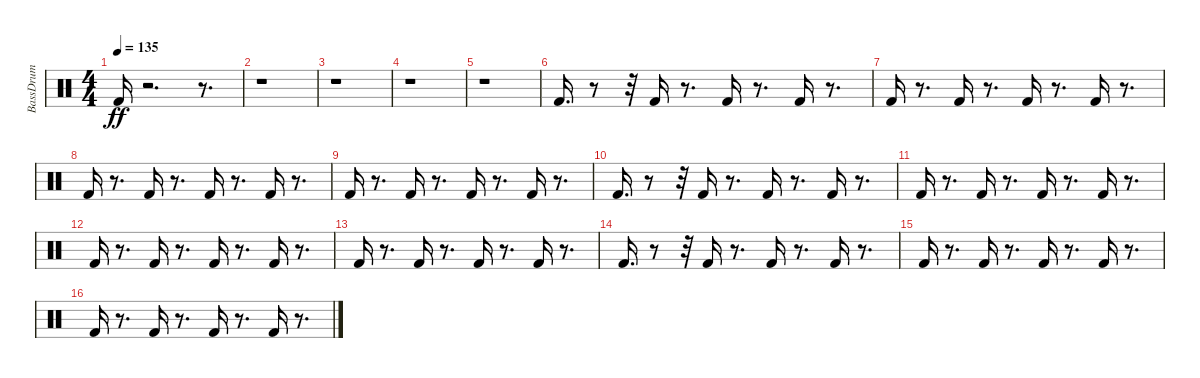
\track ("BassDrum" "BassDrum") {instrument percussion}
\staff {score}
\articulation defaults
\ts (4 4)
\tempo 135
\clef neutral
\ks c "Kick (hit) 2".16{dy ff}
r.2{d} r.8{d} |
r.1 |
r.1 |
r.1 |
r.1 |
"Kick (hit) 2".16{d} r.8 r.32 "Kick (hit) 2".16 r.8{d} "Kick (hit) 2".16 r.8{d} "Kick (hit) 2".16 r.8{d} |
"Kick (hit) 2".16 r.8{d} "Kick (hit) 2".16 r.8{d} "Kick (hit) 2".16 r.8{d} "Kick (hit) 2".16 r.8{d} |
"Kick (hit) 2".16 r.8{d} "Kick (hit) 2".16 r.8{d} "Kick (hit) 2".16 r.8{d} "Kick (hit) 2".16 r.8{d} |
"Kick (hit) 2".16 r.8{d} "Kick (hit) 2".16 r.8{d} "Kick (hit) 2".16 r.8{d} "Kick (hit) 2".16 r.8{d} |
"Kick (hit) 2".16{d} r.8 r.32 "Kick (hit) 2".16 r.8{d} "Kick (hit) 2".16 r.8{d} "Kick (hit) 2".16 r.8{d} |
"Kick (hit) 2".16 r.8{d} "Kick (hit) 2".16 r.8{d} "Kick (hit) 2".16 r.8{d} "Kick (hit) 2".16 r.8{d} |
"Kick (hit) 2".16 r.8{d} "Kick (hit) 2".16 r.8{d} "Kick (hit) 2".16 r.8{d} "Kick (hit) 2".16 r.8{d} |
"Kick (hit) 2".16 r.8{d} "Kick (hit) 2".16 r.8{d} "Kick (hit) 2".16 r.8{d} "Kick (hit) 2".16 r.8{d} |
"Kick (hit) 2".16{d} r.8 r.32 "Kick (hit) 2".16 r.8{d} "Kick (hit) 2".16 r.8{d} "Kick (hit) 2".16 r.8{d} |
"Kick (hit) 2".16 r.8{d} "Kick (hit) 2".16 r.8{d} "Kick (hit) 2".16 r.8{d} "Kick (hit) 2".16 r.8{d} |
"Kick (hit) 2".16 r.8{d} "Kick (hit) 2".16 r.8{d} "Kick (hit) 2".16 r.8{d} "Kick (hit) 2".16 r.8{d}
